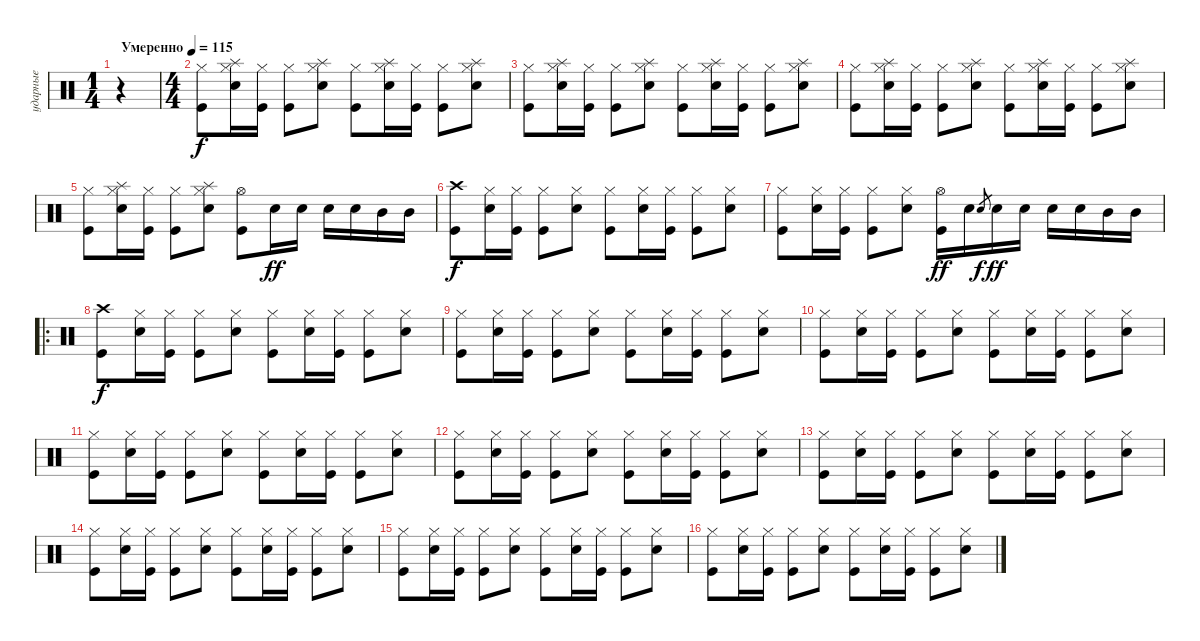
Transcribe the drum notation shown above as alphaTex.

\track ("ударные" "ударные") {instrument percussion}
\staff {score}
\articulation defaults
\ts (1 4)
\tempo (115 "Умеренно")
\clef neutral
\ks aminor
r.4{dy f} |
\ts (4 4)
("Kick (hit)" "Hi-Hat (closed)").8 ("Snare (hit) 2" "Splash (hit)" "Hi-Hat (closed)").16 ("Kick (hit)" "Hi-Hat (closed)").16 ("Kick (hit)" "Hi-Hat (closed)").8 ("Snare (hit) 2" "Splash (hit)" "Hi-Hat (closed)").8 ("Kick (hit)" "Hi-Hat (closed)").8 ("Snare (hit) 2" "Splash (hit)" "Hi-Hat (closed)").16 ("Kick (hit)" "Hi-Hat (closed)").16 ("Kick (hit)" "Hi-Hat (closed)").8 ("Snare (hit) 2" "Splash (hit)" "Hi-Hat (closed)").8 |
("Kick (hit)" "Hi-Hat (closed)").8 ("Snare (hit) 2" "Splash (hit)" "Hi-Hat (closed)").16 ("Kick (hit)" "Hi-Hat (closed)").16 ("Kick (hit)" "Hi-Hat (closed)").8 ("Snare (hit) 2" "Splash (hit)" "Hi-Hat (closed)").8 ("Kick (hit)" "Hi-Hat (closed)").8 ("Snare (hit) 2" "Splash (hit)" "Hi-Hat (closed)").16 ("Kick (hit)" "Hi-Hat (closed)").16 ("Kick (hit)" "Hi-Hat (closed)").8 ("Snare (hit) 2" "Splash (hit)" "Hi-Hat (closed)").8 |
("Kick (hit)" "Hi-Hat (closed)").8 ("Snare (hit) 2" "Splash (hit)" "Hi-Hat (closed)").16 ("Kick (hit)" "Hi-Hat (closed)").16 ("Kick (hit)" "Hi-Hat (closed)").8 ("Snare (hit) 2" "Splash (hit)" "Hi-Hat (closed)").8 ("Kick (hit)" "Hi-Hat (closed)").8 ("Snare (hit) 2" "Splash (hit)" "Hi-Hat (closed)").16 ("Kick (hit)" "Hi-Hat (closed)").16 ("Kick (hit)" "Hi-Hat (closed)").8 ("Snare (hit) 2" "Splash (hit)" "Hi-Hat (closed)").8 |
("Kick (hit)" "Hi-Hat (closed)").8 ("Snare (hit) 2" "Splash (hit)" "Hi-Hat (closed)").16 ("Kick (hit)" "Hi-Hat (closed)").16 ("Kick (hit)" "Hi-Hat (closed)").8 ("Snare (hit) 2" "Splash (hit)" "Hi-Hat (closed)").8 ("Kick (hit)" "Hi-Hat (open)").8 "Snare (hit) 2".16{dy ff} "Snare (hit) 2".16 "Snare (hit) 2".16 "Snare (hit) 2".16 "Mid Tom (hit)".16 "Mid Tom (hit)".16 |
("Kick (hit)" "Crash high (hit)").8{dy f} ("Snare (hit) 2" "Hi-Hat (closed)").16 ("Kick (hit)" "Hi-Hat (closed)").16 ("Kick (hit)" "Hi-Hat (closed)").8 ("Snare (hit) 2" "Hi-Hat (closed)").8 ("Kick (hit)" "Hi-Hat (closed)").8 ("Snare (hit) 2" "Hi-Hat (closed)").16 ("Kick (hit)" "Hi-Hat (closed)").16 ("Kick (hit)" "Hi-Hat (closed)").8 ("Snare (hit) 2" "Hi-Hat (closed)").8 |
("Kick (hit)" "Hi-Hat (closed)").8 ("Snare (hit) 2" "Hi-Hat (closed)").16 ("Kick (hit)" "Hi-Hat (closed)").16 ("Kick (hit)" "Hi-Hat (closed)").8 ("Snare (hit) 2" "Hi-Hat (closed)").8 ("Kick (hit)" "Hi-Hat (open)").16{dy ff} "Snare (hit) 2".16 "Snare (hit) 2".8{gr dy f} "Snare (hit) 2".16{dy ff} "Snare (hit) 2".16 "Snare (hit) 2".16 "Snare (hit) 2".16 "Mid Tom (hit)".16 "Mid Tom (hit)".16 |
\ro
("Kick (hit)" "Crash high (hit)").8{dy f} ("Snare (hit) 2" "Hi-Hat (closed)").16 ("Kick (hit)" "Hi-Hat (closed)").16 ("Kick (hit)" "Hi-Hat (closed)").8 ("Snare (hit) 2" "Hi-Hat (closed)").8 ("Kick (hit)" "Hi-Hat (closed)").8 ("Snare (hit) 2" "Hi-Hat (closed)").16 ("Kick (hit)" "Hi-Hat (closed)").16 ("Kick (hit)" "Hi-Hat (closed)").8 ("Snare (hit) 2" "Hi-Hat (closed)").8 |
("Kick (hit)" "Hi-Hat (closed)").8 ("Snare (hit) 2" "Hi-Hat (closed)").16 ("Kick (hit)" "Hi-Hat (closed)").16 ("Kick (hit)" "Hi-Hat (closed)").8 ("Snare (hit) 2" "Hi-Hat (closed)").8 ("Kick (hit)" "Hi-Hat (closed)").8 ("Snare (hit) 2" "Hi-Hat (closed)").16 ("Kick (hit)" "Hi-Hat (closed)").16 ("Kick (hit)" "Hi-Hat (closed)").8 ("Snare (hit) 2" "Hi-Hat (closed)").8 |
("Kick (hit)" "Hi-Hat (closed)").8 ("Snare (hit) 2" "Hi-Hat (closed)").16 ("Kick (hit)" "Hi-Hat (closed)").16 ("Kick (hit)" "Hi-Hat (closed)").8 ("Snare (hit) 2" "Hi-Hat (closed)").8 ("Kick (hit)" "Hi-Hat (closed)").8 ("Snare (hit) 2" "Hi-Hat (closed)").16 ("Kick (hit)" "Hi-Hat (closed)").16 ("Kick (hit)" "Hi-Hat (closed)").8 ("Snare (hit) 2" "Hi-Hat (closed)").8 |
("Kick (hit)" "Hi-Hat (closed)").8 ("Snare (hit) 2" "Hi-Hat (closed)").16 ("Kick (hit)" "Hi-Hat (closed)").16 ("Kick (hit)" "Hi-Hat (closed)").8 ("Snare (hit) 2" "Hi-Hat (closed)").8 ("Kick (hit)" "Hi-Hat (closed)").8 ("Snare (hit) 2" "Hi-Hat (closed)").16 ("Kick (hit)" "Hi-Hat (closed)").16 ("Kick (hit)" "Hi-Hat (closed)").8 ("Snare (hit) 2" "Hi-Hat (closed)").8 |
("Kick (hit)" "Hi-Hat (closed)").8 ("Snare (hit) 2" "Hi-Hat (closed)").16 ("Kick (hit)" "Hi-Hat (closed)").16 ("Kick (hit)" "Hi-Hat (closed)").8 ("Snare (hit) 2" "Hi-Hat (closed)").8 ("Kick (hit)" "Hi-Hat (closed)").8 ("Snare (hit) 2" "Hi-Hat (closed)").16 ("Kick (hit)" "Hi-Hat (closed)").16 ("Kick (hit)" "Hi-Hat (closed)").8 ("Snare (hit) 2" "Hi-Hat (closed)").8 |
("Kick (hit)" "Hi-Hat (closed)").8 ("Snare (hit) 2" "Hi-Hat (closed)").16 ("Kick (hit)" "Hi-Hat (closed)").16 ("Kick (hit)" "Hi-Hat (closed)").8 ("Snare (hit) 2" "Hi-Hat (closed)").8 ("Kick (hit)" "Hi-Hat (closed)").8 ("Snare (hit) 2" "Hi-Hat (closed)").16 ("Kick (hit)" "Hi-Hat (closed)").16 ("Kick (hit)" "Hi-Hat (closed)").8 ("Snare (hit) 2" "Hi-Hat (closed)").8 |
("Kick (hit)" "Hi-Hat (closed)").8 ("Snare (hit) 2" "Hi-Hat (closed)").16 ("Kick (hit)" "Hi-Hat (closed)").16 ("Kick (hit)" "Hi-Hat (closed)").8 ("Snare (hit) 2" "Hi-Hat (closed)").8 ("Kick (hit)" "Hi-Hat (closed)").8 ("Snare (hit) 2" "Hi-Hat (closed)").16 ("Kick (hit)" "Hi-Hat (closed)").16 ("Kick (hit)" "Hi-Hat (closed)").8 ("Snare (hit) 2" "Hi-Hat (closed)").8 |
("Kick (hit)" "Hi-Hat (closed)").8 ("Snare (hit) 2" "Hi-Hat (closed)").16 ("Kick (hit)" "Hi-Hat (closed)").16 ("Kick (hit)" "Hi-Hat (closed)").8 ("Snare (hit) 2" "Hi-Hat (closed)").8 ("Kick (hit)" "Hi-Hat (closed)").8 ("Snare (hit) 2" "Hi-Hat (closed)").16 ("Kick (hit)" "Hi-Hat (closed)").16 ("Kick (hit)" "Hi-Hat (closed)").8 ("Snare (hit) 2" "Hi-Hat (closed)").8 |
("Kick (hit)" "Hi-Hat (closed)").8 ("Snare (hit) 2" "Hi-Hat (closed)").16 ("Kick (hit)" "Hi-Hat (closed)").16 ("Kick (hit)" "Hi-Hat (closed)").8 ("Snare (hit) 2" "Hi-Hat (closed)").8 ("Kick (hit)" "Hi-Hat (closed)").8 ("Snare (hit) 2" "Hi-Hat (closed)").16 ("Kick (hit)" "Hi-Hat (closed)").16 ("Kick (hit)" "Hi-Hat (closed)").8 ("Snare (hit) 2" "Hi-Hat (closed)").8
